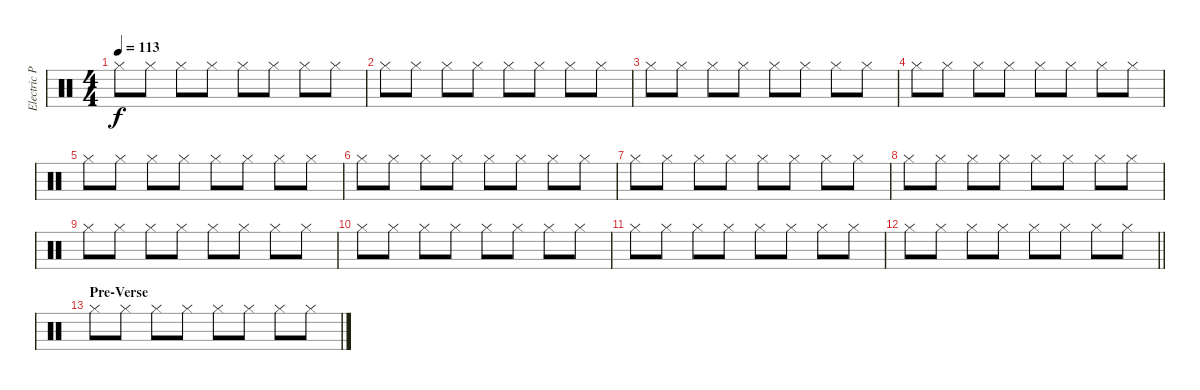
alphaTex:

\track ("Electric Percussion" "Electric P") {instrument percussion bank 3}
\staff {score}
\articulation defaults
\ts (4 4)
\tempo 113
\clef neutral
\ks c "Hi-Hat (closed)".8{dy f} "Hi-Hat (closed)".8 "Hi-Hat (closed)".8 "Hi-Hat (closed)".8 "Hi-Hat (closed)".8 "Hi-Hat (closed)".8 "Hi-Hat (closed)".8 "Hi-Hat (closed)".8
|
"Hi-Hat (closed)".8 "Hi-Hat (closed)".8 "Hi-Hat (closed)".8 "Hi-Hat (closed)".8 "Hi-Hat (closed)".8 "Hi-Hat (closed)".8 "Hi-Hat (closed)".8 "Hi-Hat (closed)".8 |
"Hi-Hat (closed)".8 "Hi-Hat (closed)".8 "Hi-Hat (closed)".8 "Hi-Hat (closed)".8 "Hi-Hat (closed)".8 "Hi-Hat (closed)".8 "Hi-Hat (closed)".8 "Hi-Hat (closed)".8 |
"Hi-Hat (closed)".8 "Hi-Hat (closed)".8 "Hi-Hat (closed)".8 "Hi-Hat (closed)".8 "Hi-Hat (closed)".8 "Hi-Hat (closed)".8 "Hi-Hat (closed)".8 "Hi-Hat (closed)".8 |
"Hi-Hat (closed)".8 "Hi-Hat (closed)".8 "Hi-Hat (closed)".8 "Hi-Hat (closed)".8 "Hi-Hat (closed)".8 "Hi-Hat (closed)".8 "Hi-Hat (closed)".8 "Hi-Hat (closed)".8 |
"Hi-Hat (closed)".8 "Hi-Hat (closed)".8 "Hi-Hat (closed)".8 "Hi-Hat (closed)".8 "Hi-Hat (closed)".8 "Hi-Hat (closed)".8 "Hi-Hat (closed)".8 "Hi-Hat (closed)".8 |
"Hi-Hat (closed)".8 "Hi-Hat (closed)".8 "Hi-Hat (closed)".8 "Hi-Hat (closed)".8 "Hi-Hat (closed)".8 "Hi-Hat (closed)".8 "Hi-Hat (closed)".8 "Hi-Hat (closed)".8 |
"Hi-Hat (closed)".8 "Hi-Hat (closed)".8 "Hi-Hat (closed)".8 "Hi-Hat (closed)".8 "Hi-Hat (closed)".8 "Hi-Hat (closed)".8 "Hi-Hat (closed)".8 "Hi-Hat (closed)".8 |
"Hi-Hat (closed)".8 "Hi-Hat (closed)".8 "Hi-Hat (closed)".8 "Hi-Hat (closed)".8 "Hi-Hat (closed)".8 "Hi-Hat (closed)".8 "Hi-Hat (closed)".8 "Hi-Hat (closed)".8 |
"Hi-Hat (closed)".8 "Hi-Hat (closed)".8 "Hi-Hat (closed)".8 "Hi-Hat (closed)".8 "Hi-Hat (closed)".8 "Hi-Hat (closed)".8 "Hi-Hat (closed)".8 "Hi-Hat (closed)".8 |
"Hi-Hat (closed)".8 "Hi-Hat (closed)".8 "Hi-Hat (closed)".8 "Hi-Hat (closed)".8 "Hi-Hat (closed)".8 "Hi-Hat (closed)".8 "Hi-Hat (closed)".8 "Hi-Hat (closed)".8 |
\barLineRight lightlight "Hi-Hat (closed)".8 "Hi-Hat (closed)".8 "Hi-Hat (closed)".8 "Hi-Hat (closed)".8 "Hi-Hat (closed)".8 "Hi-Hat (closed)".8 "Hi-Hat (closed)".8 "Hi-Hat (closed)".8
|
\section ("" "Pre-Verse")
"Hi-Hat (closed)".8 "Hi-Hat (closed)".8 "Hi-Hat (closed)".8 "Hi-Hat (closed)".8 "Hi-Hat (closed)".8 "Hi-Hat (closed)".8 "Hi-Hat (closed)".8 "Hi-Hat (closed)".8
